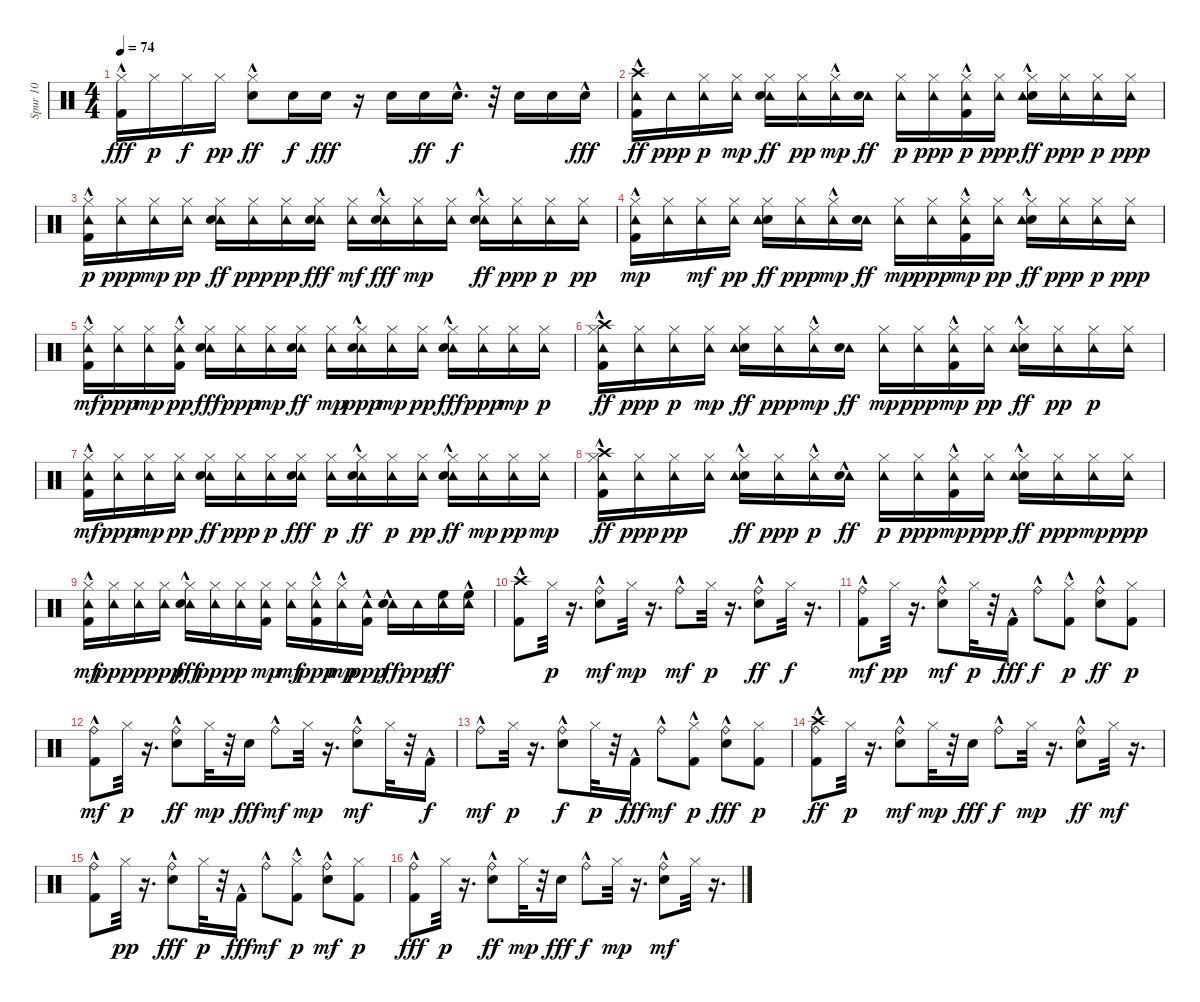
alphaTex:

\track ("Spur 10" "Spur 10") {instrument percussion}
\staff {score}
\articulation defaults
\ts (4 4)
\tempo 74
\clef neutral
\ks c
("Kick (hit) 2"{hac} "Hi-Hat (closed)").16{dy fff} "Hi-Hat (closed)".16{dy p} "Hi-Hat (closed)".16{dy f} "Hi-Hat (closed)".16{dy pp} ("Hi-Hat (closed)"{hac} "Snare (hit) 2").8{dy ff} "Snare (hit) 2".16{dy f} "Snare (hit) 2".16{dy fff} r.16 "Snare (hit) 2".16 "Snare (hit) 2".16{dy ff} "Snare (hit) 2"{hac}.16{d dy f} r.32 "Snare (hit) 2".16 "Snare (hit) 2".16 "Snare (hit) 2"{hac}.16{dy fff} |
("Kick (hit) 2"{hac} "Tambourine (hit)" "Crash high (hit)").16{dy ff} "Tambourine (hit)".16{dy ppp} ("Tambourine (hit)" "Hi-Hat (closed)").16{dy p} ("Hi-Hat (closed)" "Tambourine (hit)").16{dy mp} ("Hi-Hat (closed)" "Tambourine (hit)" "Snare (hit) 2").16{dy ff} ("Hi-Hat (closed)" "Tambourine (hit)").16{dy pp} ("Hi-Hat (closed)"{hac} "Tambourine (hit)").16{dy mp} ("Tambourine (hit)" "Snare (hit) 2").16{dy ff} ("Hi-Hat (closed)" "Tambourine (hit)").16{dy p} ("Hi-Hat (closed)" "Tambourine (hit)").16{dy ppp} ("Hi-Hat (closed)" "Kick (hit) 2"{hac} "Tambourine (hit)").16{dy p} ("Hi-Hat (closed)" "Tambourine (hit)").16{dy ppp} ("Hi-Hat (closed)" "Snare (hit) 2"{hac} "Tambourine (hit)").16{dy ff} ("Hi-Hat (closed)" "Tambourine (hit)").16{dy ppp} ("Hi-Hat (closed)" "Tambourine (hit)").16{dy p} ("Hi-Hat (closed)" "Tambourine (hit)").16{dy ppp} |
("Hi-Hat (closed)" "Kick (hit) 2"{hac} "Tambourine (hit)").16{dy p} ("Hi-Hat (closed)" "Tambourine (hit)").16{dy ppp} ("Hi-Hat (closed)" "Tambourine (hit)").16{dy mp} ("Hi-Hat (closed)" "Tambourine (hit)").16{dy pp} ("Tambourine (hit)" "Hi-Hat (closed)" "Snare (hit) 2").16{dy ff} ("Hi-Hat (closed)" "Tambourine (hit)").16{dy ppp} ("Hi-Hat (closed)" "Tambourine (hit)").16{dy pp} ("Tambourine (hit)" "Hi-Hat (closed)" "Snare (hit) 2").16{dy fff} ("Tambourine (hit)" "Hi-Hat (closed)").16{dy mf} ("Tambourine (hit)" "Hi-Hat (closed)" "Snare (hit) 2"{hac}).16{dy fff} ("Hi-Hat (closed)" "Tambourine (hit)").16{dy mp} ("Tambourine (hit)" "Hi-Hat (closed)").16 ("Hi-Hat (closed)" "Tambourine (hit)" "Snare (hit) 2"{hac}).16{dy ff} ("Hi-Hat (closed)" "Tambourine (hit)").16{dy ppp} ("Hi-Hat (closed)" "Tambourine (hit)").16{dy p} ("Tambourine (hit)" "Hi-Hat (closed)").16{dy pp} |
("Kick (hit) 2"{hac} "Hi-Hat (closed)" "Tambourine (hit)").16{dy mp} ("Tambourine (hit)" "Hi-Hat (closed)").16 ("Hi-Hat (closed)" "Tambourine (hit)").16{dy mf} ("Hi-Hat (closed)" "Tambourine (hit)").16{dy pp} ("Hi-Hat (closed)" "Snare (hit) 2" "Tambourine (hit)").16{dy ff} ("Hi-Hat (closed)" "Tambourine (hit)").16{dy ppp} ("Hi-Hat (closed)"{hac} "Tambourine (hit)").16{dy mp} ("Tambourine (hit)" "Snare (hit) 2").16{dy ff} ("Hi-Hat (closed)" "Tambourine (hit)").16{dy mp} ("Hi-Hat (closed)" "Tambourine (hit)").16{dy ppp} ("Hi-Hat (closed)" "Kick (hit) 2"{hac} "Tambourine (hit)").16{dy mp} ("Hi-Hat (closed)" "Tambourine (hit)").16{dy pp} ("Hi-Hat (closed)" "Snare (hit) 2"{hac} "Tambourine (hit)").16{dy ff} ("Hi-Hat (closed)" "Tambourine (hit)").16{dy ppp} ("Hi-Hat (closed)" "Tambourine (hit)").16{dy p} ("Hi-Hat (closed)" "Tambourine (hit)").16{dy ppp} |
("Hi-Hat (closed)" "Kick (hit) 2"{hac} "Tambourine (hit)").16{dy mf} ("Hi-Hat (closed)" "Tambourine (hit)").16{dy ppp} ("Hi-Hat (closed)" "Tambourine (hit)").16{dy mp} ("Hi-Hat (closed)" "Kick (hit) 2"{hac} "Tambourine (hit)").16{dy pp} ("Hi-Hat (closed)" "Tambourine (hit)" "Snare (hit) 2").16{dy fff} ("Hi-Hat (closed)" "Tambourine (hit)").16{dy ppp} ("Hi-Hat (closed)" "Tambourine (hit)").16{dy mp} ("Tambourine (hit)" "Hi-Hat (closed)" "Snare (hit) 2").16{dy ff} ("Hi-Hat (closed)" "Tambourine (hit)").16{dy mp} ("Hi-Hat (closed)" "Tambourine (hit)" "Snare (hit) 2"{hac}).16{dy ppp} ("Hi-Hat (closed)" "Tambourine (hit)").16{dy mp} ("Hi-Hat (closed)" "Tambourine (hit)").16{dy pp} ("Hi-Hat (closed)" "Tambourine (hit)" "Snare (hit) 2"{hac}).16{dy fff} ("Hi-Hat (closed)" "Tambourine (hit)").16{dy ppp} ("Hi-Hat (closed)" "Tambourine (hit)").16{dy mp} ("Tambourine (hit)" "Hi-Hat (closed)").16{dy p} |
("Tambourine (hit)" "Hi-Hat (closed)" "Kick (hit) 2"{hac} "Crash high (hit)").16{dy ff} ("Hi-Hat (closed)" "Tambourine (hit)").16{dy ppp} ("Tambourine (hit)" "Hi-Hat (closed)").16{dy p} ("Tambourine (hit)" "Hi-Hat (closed)").16{dy mp} ("Hi-Hat (closed)" "Snare (hit) 2" "Tambourine (hit)").16{dy ff} ("Hi-Hat (closed)" "Tambourine (hit)").16{dy ppp} ("Hi-Hat (closed)"{hac} "Tambourine (hit)").16{dy mp} ("Tambourine (hit)" "Snare (hit) 2").16{dy ff} ("Hi-Hat (closed)" "Tambourine (hit)").16{dy mp} ("Hi-Hat (closed)" "Tambourine (hit)").16{dy ppp} ("Hi-Hat (closed)" "Kick (hit) 2"{hac} "Tambourine (hit)").16{dy mp} ("Hi-Hat (closed)" "Tambourine (hit)").16{dy pp} ("Hi-Hat (closed)" "Snare (hit) 2"{hac} "Tambourine (hit)").16{dy ff} ("Hi-Hat (closed)" "Tambourine (hit)").16{dy pp} ("Hi-Hat (closed)" "Tambourine (hit)").16{dy p} ("Tambourine (hit)" "Hi-Hat (closed)").16 |
("Hi-Hat (closed)" "Kick (hit) 2"{hac} "Tambourine (hit)").16{dy mf} ("Hi-Hat (closed)" "Tambourine (hit)").16{dy ppp} ("Hi-Hat (closed)" "Tambourine (hit)").16{dy mp} ("Hi-Hat (closed)" "Tambourine (hit)").16{dy pp} ("Hi-Hat (closed)" "Tambourine (hit)" "Snare (hit) 2").16{dy ff} ("Hi-Hat (closed)" "Tambourine (hit)").16{dy ppp} ("Hi-Hat (closed)" "Tambourine (hit)").16{dy p} ("Tambourine (hit)" "Hi-Hat (closed)" "Snare (hit) 2").16{dy fff} ("Hi-Hat (closed)" "Tambourine (hit)").16{dy p} ("Tambourine (hit)" "Hi-Hat (closed)" "Snare (hit) 2"{hac}).16{dy ff} ("Hi-Hat (closed)" "Tambourine (hit)").16{dy p} ("Hi-Hat (closed)" "Tambourine (hit)").16{dy pp} ("Hi-Hat (closed)" "Tambourine (hit)" "Snare (hit) 2"{hac}).16{dy ff} ("Tambourine (hit)" "Hi-Hat (closed)").16{dy mp} ("Hi-Hat (closed)" "Tambourine (hit)").16{dy pp} ("Tambourine (hit)" "Hi-Hat (closed)").16{dy mp} |
("Kick (hit) 2"{hac} "Hi-Hat (closed)" "Tambourine (hit)" "Crash high (hit)").16{dy ff} ("Hi-Hat (closed)" "Tambourine (hit)").16{dy ppp} ("Hi-Hat (closed)" "Tambourine (hit)").16{dy pp} ("Hi-Hat (closed)" "Tambourine (hit)").16 ("Hi-Hat (closed)" "Snare (hit) 2"{hac} "Tambourine (hit)").16{dy ff} ("Hi-Hat (closed)" "Tambourine (hit)").16{dy ppp} ("Hi-Hat (closed)"{hac} "Tambourine (hit)").16{dy p} ("Tambourine (hit)" "Snare (hit) 2"{hac}).16{dy ff} ("Hi-Hat (closed)" "Tambourine (hit)").16{dy p} ("Hi-Hat (closed)" "Tambourine (hit)").16{dy ppp} ("Kick (hit) 2"{hac} "Hi-Hat (closed)" "Tambourine (hit)").16{dy mp} ("Hi-Hat (closed)" "Tambourine (hit)").16{dy ppp} ("Hi-Hat (closed)" "Snare (hit) 2"{hac} "Tambourine (hit)").16{dy ff} ("Hi-Hat (closed)" "Tambourine (hit)").16{dy ppp} ("Hi-Hat (closed)" "Tambourine (hit)").16{dy mp} ("Hi-Hat (closed)" "Tambourine (hit)").16{dy ppp} |
("Kick (hit) 2"{hac} "Hi-Hat (closed)" "Tambourine (hit)").16{dy mf} ("Hi-Hat (closed)" "Tambourine (hit)").16{dy ppp} ("Hi-Hat (closed)" "Tambourine (hit)").16{dy p} ("Hi-Hat (closed)" "Tambourine (hit)").16{dy ppp} ("Hi-Hat (closed)" "Tambourine (hit)" "Snare (hit) 2"{hac}).16{dy fff} ("Hi-Hat (closed)" "Tambourine (hit)").16{dy ppp} ("Hi-Hat (closed)" "Tambourine (hit)").16{dy p} ("Tambourine (hit)" "Kick (hit) 2" "Hi-Hat (closed)").16{dy mp} ("Hi-Hat (closed)" "Tambourine (hit)").16{dy mf} ("Kick (hit) 2"{hac} "Hi-Hat (closed)" "Tambourine (hit)").16{dy ppp} ("Hi-Hat (closed)"{hac} "Tambourine (hit)").16{dy mp} ("Kick (hit) 2"{hac} "Tambourine (hit)").16{dy ppp} ("Tambourine (hit)" "Snare (hit) 2"{hac}).16{dy ff} "Tambourine (hit)".16{dy ppp} ("Tambourine (hit)" "High Floor Tom (hit)").16{dy ff} ("Tambourine (hit)"{hac} "High Floor Tom (hit)"{hac}).16 |
("Kick (hit) 2"{hac} "Crash high (hit)").8 "Hi-Hat (closed)".32{dy p} r.16{d} ("Snare (hit) 2"{hac} "Ride (bell)"{hac}).8{dy mf} "Hi-Hat (closed)".32{dy mp} r.16{d} "Ride (bell)"{hac}.8{dy mf} "Hi-Hat (closed)".32{dy p} r.16{d} ("Snare (hit) 2"{hac} "Ride (bell)"{hac}).8{dy ff} "Hi-Hat (closed)".32{dy f} r.16{d} |
("Kick (hit) 2"{hac} "Ride (bell)"{hac}).8{dy mf} "Hi-Hat (closed)".32{dy pp} r.16{d} ("Snare (hit) 2"{hac} "Ride (bell)"{hac}).8{dy mf} "Hi-Hat (closed)".32{dy p} r.32 "Kick (hit) 2"{hac}.16{dy fff} "Ride (bell)"{hac}.8{dy f} ("Kick (hit) 2"{hac} "Hi-Hat (closed)").8{dy p} ("Snare (hit) 2"{hac} "Ride (bell)"{hac}).8{dy ff} ("Kick (hit) 2" "Hi-Hat (closed)").8{dy p} |
("Kick (hit) 2"{hac} "Ride (bell)"{hac}).8{dy mf} "Hi-Hat (closed)".32{dy p} r.16{d} ("Snare (hit) 2" "Ride (bell)"{hac}).8{dy ff} "Hi-Hat (closed)".32{dy mp} r.32 "Snare (hit) 2".16{dy fff} "Ride (bell)"{hac}.8{dy mf} "Hi-Hat (closed)".32{dy mp} r.16{d} ("Snare (hit) 2"{hac} "Ride (bell)"{hac}).8{dy mf} "Hi-Hat (closed)".32 r.32 "Kick (hit) 2"{hac}.16{dy f} |
"Ride (bell)"{hac}.8{dy mf} "Hi-Hat (closed)".32{dy p} r.16{d} ("Ride (bell)"{hac} "Snare (hit) 2"{hac}).8{dy f} "Hi-Hat (closed)".32{dy p} r.32 "Kick (hit) 2"{hac}.16{dy fff} "Ride (bell)"{hac}.8{dy mf} ("Kick (hit) 2"{hac} "Hi-Hat (closed)").8{dy p} ("Snare (hit) 2"{hac} "Ride (bell)"{hac}).8{dy fff} ("Kick (hit) 2" "Hi-Hat (closed)").8{dy p} |
("Kick (hit) 2"{hac} "Crash high (hit)" "Ride (bell)"{hac}).8{dy ff} "Hi-Hat (closed)".32{dy p} r.16{d} ("Snare (hit) 2" "Ride (bell)"{hac}).8{dy mf} "Hi-Hat (closed)".32{dy mp} r.32 "Snare (hit) 2".16{dy fff} "Ride (bell)"{hac}.8{dy f} "Hi-Hat (closed)".32{dy mp} r.16{d} ("Snare (hit) 2"{hac} "Ride (bell)"{hac}).8{dy ff} "Hi-Hat (closed)".32{dy mf} r.16{d} |
("Kick (hit) 2"{hac} "Ride (bell)"{hac}).8 "Hi-Hat (closed)".32{dy pp} r.16{d} ("Snare (hit) 2"{hac} "Ride (bell)"{hac}).8{dy fff} "Hi-Hat (closed)".32{dy p} r.32 "Kick (hit) 2"{hac}.16{dy fff} "Ride (bell)"{hac}.8{dy mf} ("Kick (hit) 2"{hac} "Hi-Hat (closed)").8{dy p} ("Snare (hit) 2"{hac} "Ride (bell)"{hac}).8{dy mf} ("Kick (hit) 2" "Hi-Hat (closed)").8{dy p} |
("Kick (hit) 2" "Ride (bell)"{hac}).8{dy fff} "Hi-Hat (closed)".32{dy p} r.16{d} ("Snare (hit) 2" "Ride (bell)"{hac}).8{dy ff} "Hi-Hat (closed)".32{dy mp} r.32 "Snare (hit) 2".16{dy fff} "Ride (bell)"{hac}.8{dy f} "Hi-Hat (closed)".32{dy mp} r.16{d} ("Snare (hit) 2"{hac} "Ride (bell)"{hac}).8{dy mf} "Hi-Hat (closed)".32 r.16{d}
